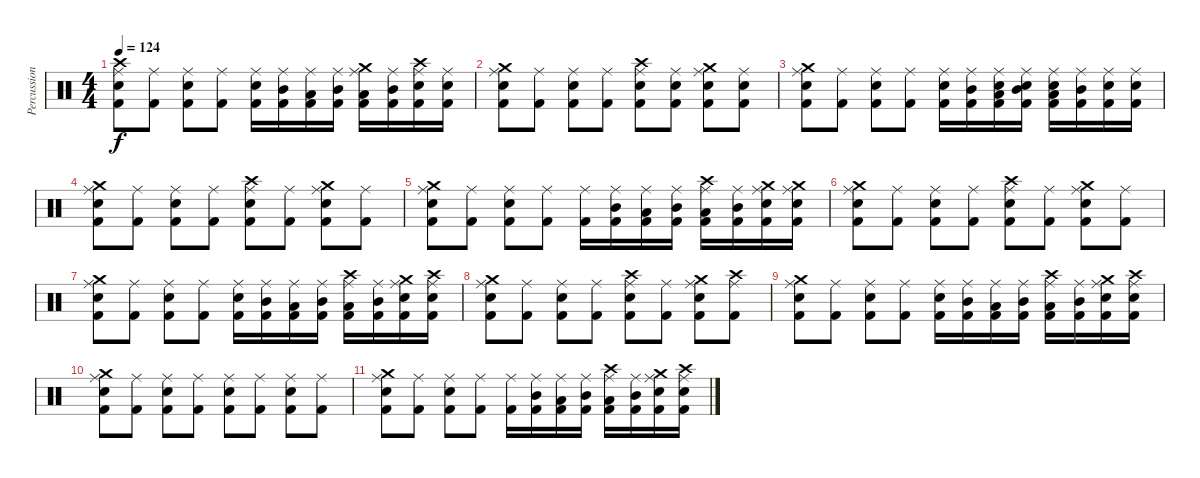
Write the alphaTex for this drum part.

\track ("Percussions" "Percussion") {instrument percussion}
\staff {score}
\articulation defaults
\ts (4 4)
\tempo 124
\clef neutral
\ks c
("Kick (hit) 2" "Electric Snare (hit)" "Crash high (hit)" "Ride (middle)").8{dy f} ("Kick (hit) 2" "Ride (middle)").8 ("Kick (hit) 2" "Electric Snare (hit)" "Ride (middle)").8 ("Kick (hit) 2" "Ride (middle)").8 ("Kick (hit) 2" "Electric Snare (hit)" "Ride (middle)").16 ("Kick (hit) 2" "Mid Tom (hit)" "Ride (middle)").16 ("Low Tom (hit)" "Kick (hit) 2" "Ride (middle)").16 ("Kick (hit) 2" "Mid Tom (hit)" "Ride (middle)").16 ("Kick (hit) 2" "Low Tom (hit)" "Crash medium (hit)" "Ride (middle)").16 ("Kick (hit) 2" "Mid Tom (hit)" "Ride (middle)").16 ("Kick (hit) 2" "Electric Snare (hit)" "Crash high (hit)" "Ride (middle)").16 ("Kick (hit) 2" "Electric Snare (hit)" "Ride (middle)").16 |
("Kick (hit) 2" "Electric Snare (hit)" "Crash medium (hit)" "Ride (middle)").8 ("Kick (hit) 2" "Ride (middle)").8 ("Kick (hit) 2" "Electric Snare (hit)" "Ride (middle)").8 ("Kick (hit) 2" "Ride (middle)").8 ("Kick (hit) 2" "Electric Snare (hit)" "Crash high (hit)" "Ride (middle)").8 ("Kick (hit) 2" "Electric Snare (hit)" "Ride (middle)").8 ("Kick (hit) 2" "Electric Snare (hit)" "Crash medium (hit)" "Ride (middle)").8 ("Kick (hit) 2" "Electric Snare (hit)" "Ride (middle)").8 |
("Kick (hit) 2" "Electric Snare (hit)" "Crash medium (hit)" "Ride (middle)").8 ("Kick (hit) 2" "Ride (middle)").8 ("Kick (hit) 2" "Electric Snare (hit)" "Ride (middle)").8 ("Kick (hit) 2" "Ride (middle)").8 ("Kick (hit) 2" "Electric Snare (hit)" "Ride (middle)").16 ("Kick (hit) 2" "Mid Tom (hit)" "Ride (middle)").16 ("Low Tom (hit)" "Kick (hit) 2" "Electric Snare (hit)" "Ride (middle)").16 ("Kick (hit) 2" "Mid Tom (hit)" "Electric Snare (hit)" "Ride (middle)").16 ("Kick (hit) 2" "Low Tom (hit)" "Electric Snare (hit)" "Ride (middle)").16 ("Kick (hit) 2" "Mid Tom (hit)" "Ride (middle)").16 ("Kick (hit) 2" "Electric Snare (hit)" "Ride (middle)").16 ("Kick (hit) 2" "Electric Snare (hit)" "Ride (middle)").16 |
("Kick (hit) 2" "Electric Snare (hit)" "Crash medium (hit)" "Ride (middle)").8 ("Kick (hit) 2" "Ride (middle)").8 ("Kick (hit) 2" "Electric Snare (hit)" "Ride (middle)").8 ("Kick (hit) 2" "Ride (middle)").8 ("Kick (hit) 2" "Electric Snare (hit)" "Crash high (hit)" "Ride (middle)").8 ("Kick (hit) 2" "Ride (middle)").8 ("Kick (hit) 2" "Electric Snare (hit)" "Crash medium (hit)" "Ride (middle)").8 ("Kick (hit) 2" "Ride (middle)").8 |
("Kick (hit) 2" "Electric Snare (hit)" "Crash medium (hit)" "Ride (middle)").8 ("Kick (hit) 2" "Ride (middle)").8 ("Kick (hit) 2" "Electric Snare (hit)" "Ride (middle)").8 ("Kick (hit) 2" "Ride (middle)").8 ("Kick (hit) 2" "Ride (middle)").16 ("Kick (hit) 2" "Mid Tom (hit)" "Ride (middle)").16 ("Low Tom (hit)" "Kick (hit) 2" "Ride (middle)").16 ("Kick (hit) 2" "Mid Tom (hit)" "Ride (middle)").16 ("Kick (hit) 2" "Low Tom (hit)" "Crash high (hit)" "Ride (middle)").16 ("Kick (hit) 2" "Mid Tom (hit)" "Ride (middle)").16 ("Kick (hit) 2" "Electric Snare (hit)" "Crash medium (hit)" "Ride (middle)").16 ("Kick (hit) 2" "Electric Snare (hit)" "Crash medium (hit)" "Ride (middle)").16 |
("Kick (hit) 2" "Electric Snare (hit)" "Crash medium (hit)" "Ride (middle)").8 ("Kick (hit) 2" "Ride (middle)").8 ("Kick (hit) 2" "Electric Snare (hit)" "Ride (middle)").8 ("Kick (hit) 2" "Ride (middle)").8 ("Kick (hit) 2" "Electric Snare (hit)" "Crash high (hit)" "Ride (middle)").8 ("Kick (hit) 2" "Ride (middle)").8 ("Kick (hit) 2" "Electric Snare (hit)" "Crash medium (hit)" "Ride (middle)").8 ("Kick (hit) 2" "Ride (middle)").8 |
("Kick (hit) 2" "Electric Snare (hit)" "Crash medium (hit)" "Ride (middle)").8 ("Kick (hit) 2" "Ride (middle)").8 ("Kick (hit) 2" "Electric Snare (hit)" "Ride (middle)").8 ("Kick (hit) 2" "Ride (middle)").8 ("Kick (hit) 2" "Electric Snare (hit)" "Ride (middle)").16 ("Kick (hit) 2" "Mid Tom (hit)" "Ride (middle)").16 ("Low Tom (hit)" "Kick (hit) 2" "Ride (middle)").16 ("Kick (hit) 2" "Mid Tom (hit)" "Ride (middle)").16 ("Kick (hit) 2" "Low Tom (hit)" "Crash high (hit)" "Ride (middle)").16 ("Kick (hit) 2" "Mid Tom (hit)" "Ride (middle)").16 ("Kick (hit) 2" "Electric Snare (hit)" "Crash medium (hit)" "Ride (middle)").16 ("Kick (hit) 2" "Electric Snare (hit)" "Crash high (hit)" "Ride (middle)").16 |
("Kick (hit) 2" "Electric Snare (hit)" "Crash medium (hit)" "Ride (middle)").8 ("Kick (hit) 2" "Ride (middle)").8 ("Kick (hit) 2" "Electric Snare (hit)" "Ride (middle)").8 ("Kick (hit) 2" "Ride (middle)").8 ("Kick (hit) 2" "Electric Snare (hit)" "Crash high (hit)" "Ride (middle)").8 ("Kick (hit) 2" "Ride (middle)").8 ("Kick (hit) 2" "Electric Snare (hit)" "Crash medium (hit)" "Ride (middle)").8 ("Kick (hit) 2" "Crash high (hit)" "Ride (middle)").8 |
("Kick (hit) 2" "Electric Snare (hit)" "Crash medium (hit)" "Ride (middle)").8 ("Kick (hit) 2" "Ride (middle)").8 ("Kick (hit) 2" "Electric Snare (hit)" "Ride (middle)").8 ("Kick (hit) 2" "Ride (middle)").8 ("Kick (hit) 2" "Electric Snare (hit)" "Ride (middle)").16 ("Kick (hit) 2" "Mid Tom (hit)" "Ride (middle)").16 ("Low Tom (hit)" "Kick (hit) 2" "Ride (middle)").16 ("Kick (hit) 2" "Mid Tom (hit)" "Ride (middle)").16 ("Kick (hit) 2" "Low Tom (hit)" "Crash high (hit)" "Ride (middle)").16 ("Kick (hit) 2" "Mid Tom (hit)" "Ride (middle)").16 ("Kick (hit) 2" "Electric Snare (hit)" "Crash medium (hit)" "Ride (middle)").16 ("Kick (hit) 2" "Electric Snare (hit)" "Crash high (hit)" "Ride (middle)").16 |
("Kick (hit) 2" "Electric Snare (hit)" "Crash medium (hit)" "Ride (middle)").8 ("Kick (hit) 2" "Ride (middle)").8 ("Kick (hit) 2" "Electric Snare (hit)" "Ride (middle)").8 ("Kick (hit) 2" "Ride (middle)").8 ("Kick (hit) 2" "Electric Snare (hit)" "Ride (middle)").8 ("Kick (hit) 2" "Ride (middle)").8 ("Kick (hit) 2" "Electric Snare (hit)" "Ride (middle)").8 ("Kick (hit) 2" "Ride (middle)").8 |
("Kick (hit) 2" "Electric Snare (hit)" "Crash medium (hit)" "Ride (middle)").8 ("Kick (hit) 2" "Ride (middle)").8 ("Kick (hit) 2" "Electric Snare (hit)" "Ride (middle)").8 ("Kick (hit) 2" "Ride (middle)").8 ("Kick (hit) 2" "Ride (middle)").16 ("Kick (hit) 2" "Mid Tom (hit)" "Ride (middle)").16 ("Low Tom (hit)" "Kick (hit) 2" "Ride (middle)").16 ("Kick (hit) 2" "Mid Tom (hit)" "Ride (middle)").16 ("Kick (hit) 2" "Low Tom (hit)" "Crash high (hit)" "Ride (middle)").16 ("Kick (hit) 2" "Mid Tom (hit)" "Ride (middle)").16 ("Kick (hit) 2" "Electric Snare (hit)" "Crash medium (hit)" "Ride (middle)").16 ("Kick (hit) 2" "Electric Snare (hit)" "Crash high (hit)" "Ride (middle)").16
